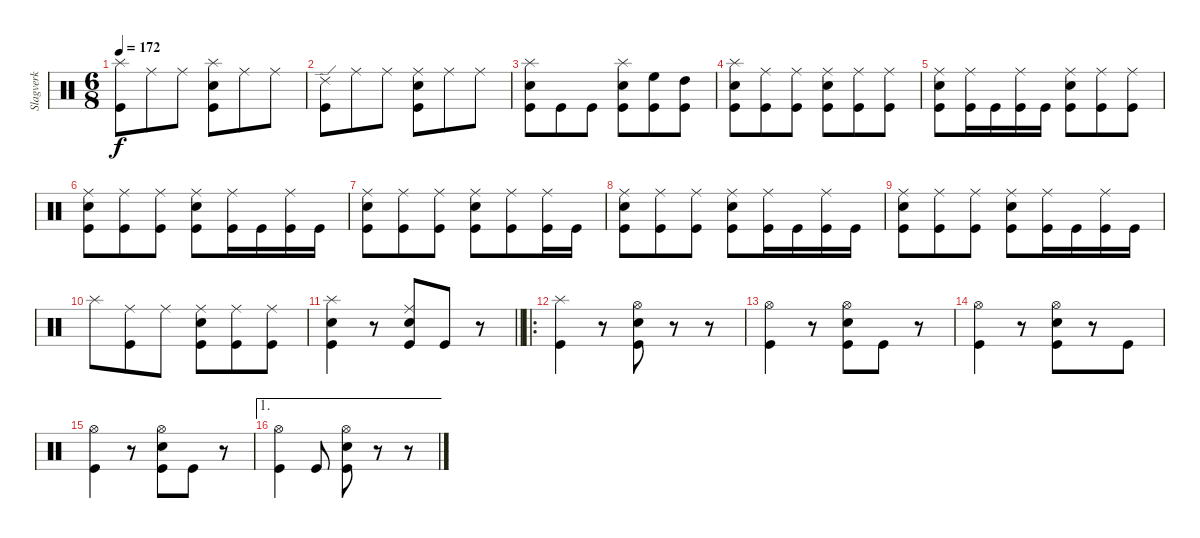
\track ("Slagverk" "Slagverk") {instrument percussion}
\staff {score}
\articulation defaults
\ts (6 8)
\tempo 172
\clef neutral
\ks c
("Splash (hit)" "Kick (hit)").8{dy f} "Ride (middle)".8 "Ride (middle)".8 ("Splash (hit)" "Snare (hit) 2" "Kick (hit)").8 "Ride (middle)".8 "Ride (middle)".8 |
("Ride (edge) 2" "Kick (hit)").8 "Ride (middle)".8 "Ride (middle)".8 ("Ride (middle)" "Snare (hit) 2" "Kick (hit)").8 "Ride (middle)".8 "Ride (middle)".8 |
("Splash (hit)" "Snare (hit) 2" "Kick (hit)").8 "Kick (hit)".8 "Kick (hit)".8 ("Splash (hit)" "Snare (hit) 2" "Kick (hit)").8 ("High Floor Tom (hit)" "Kick (hit)").8 ("High Tom (hit)" "Kick (hit)").8 |
("Splash (hit)" "Snare (hit) 2" "Kick (hit)").8 ("Ride (middle)" "Kick (hit)").8 ("Ride (middle)" "Kick (hit)").8 ("Ride (middle)" "Snare (hit) 2" "Kick (hit)").8 ("Ride (middle)" "Kick (hit)").8 ("Ride (middle)" "Kick (hit)").8 |
("Ride (middle)" "Snare (hit) 2" "Kick (hit)").8 ("Ride (middle)" "Kick (hit)").16 "Kick (hit)".16 ("Ride (middle)" "Kick (hit)").16 "Kick (hit)".16 ("Ride (middle)" "Snare (hit) 2" "Kick (hit)").8 ("Ride (middle)" "Kick (hit)").8 ("Ride (middle)" "Kick (hit)").8 |
("Ride (middle)" "Snare (hit) 2" "Kick (hit)").8 ("Ride (middle)" "Kick (hit)").8 ("Ride (middle)" "Kick (hit)").8 ("Ride (middle)" "Snare (hit) 2" "Kick (hit)").8 ("Ride (middle)" "Kick (hit)").16 "Kick (hit)".16 ("Ride (middle)" "Kick (hit)").16 "Kick (hit)".16 |
("Ride (middle)" "Snare (hit) 2" "Kick (hit)").8 ("Ride (middle)" "Kick (hit)").8 ("Ride (middle)" "Kick (hit)").8 ("Ride (middle)" "Snare (hit) 2" "Kick (hit)").8 ("Ride (middle)" "Kick (hit)").8 ("Ride (middle)" "Kick (hit)").16 "Kick (hit)".16 |
("Ride (middle)" "Snare (hit) 2" "Kick (hit)").8 ("Ride (middle)" "Kick (hit)").8 ("Ride (middle)" "Kick (hit)").8 ("Ride (middle)" "Snare (hit) 2" "Kick (hit)").8 ("Ride (middle)" "Kick (hit)").16 "Kick (hit)".16 ("Ride (middle)" "Kick (hit)").16 "Kick (hit)".16 |
("Ride (middle)" "Snare (hit) 2" "Kick (hit)").8 ("Ride (middle)" "Kick (hit)").8 ("Ride (middle)" "Kick (hit)").8 ("Ride (middle)" "Snare (hit) 2" "Kick (hit)").8 ("Ride (middle)" "Kick (hit)").16 "Kick (hit)".16 ("Ride (middle)" "Kick (hit)").16 "Kick (hit)".16 |
"Splash (hit)".8 ("Ride (middle)" "Kick (hit)").8 "Ride (middle)".8 ("Ride (middle)" "Snare (hit) 2" "Kick (hit)").8 ("Ride (middle)" "Kick (hit)").8 ("Ride (middle)" "Kick (hit)").8 |
\barLineRight lightlight
("Splash (hit)" "Snare (hit) 2" "Kick (hit)").4 r.8 ("Ride (middle)" "Snare (hit) 2" "Kick (hit)").8 "Kick (hit)".8 r.8 |
\ro
("Splash (hit)" "Kick (hit)").4 r.8 ("Hi-Hat (open)" "Snare (hit) 2" "Kick (hit)").8 r.8 r.8 |
("Hi-Hat (open)" "Kick (hit)").4 r.8 ("Hi-Hat (open)" "Snare (hit) 2" "Kick (hit)").8 "Kick (hit)".8 r.8 |
("Hi-Hat (open)" "Kick (hit)").4 r.8 ("Hi-Hat (open)" "Snare (hit) 2" "Kick (hit)").8 r.8 "Kick (hit)".8 |
("Hi-Hat (open)" "Kick (hit)").4 r.8 ("Hi-Hat (open)" "Snare (hit) 2" "Kick (hit)").8 "Kick (hit)".8 r.8 |
\ae 1
("Hi-Hat (open)" "Kick (hit)").4 "Kick (hit)".8 ("Hi-Hat (open)" "Snare (hit) 2" "Kick (hit)").8 r.8 r.8
